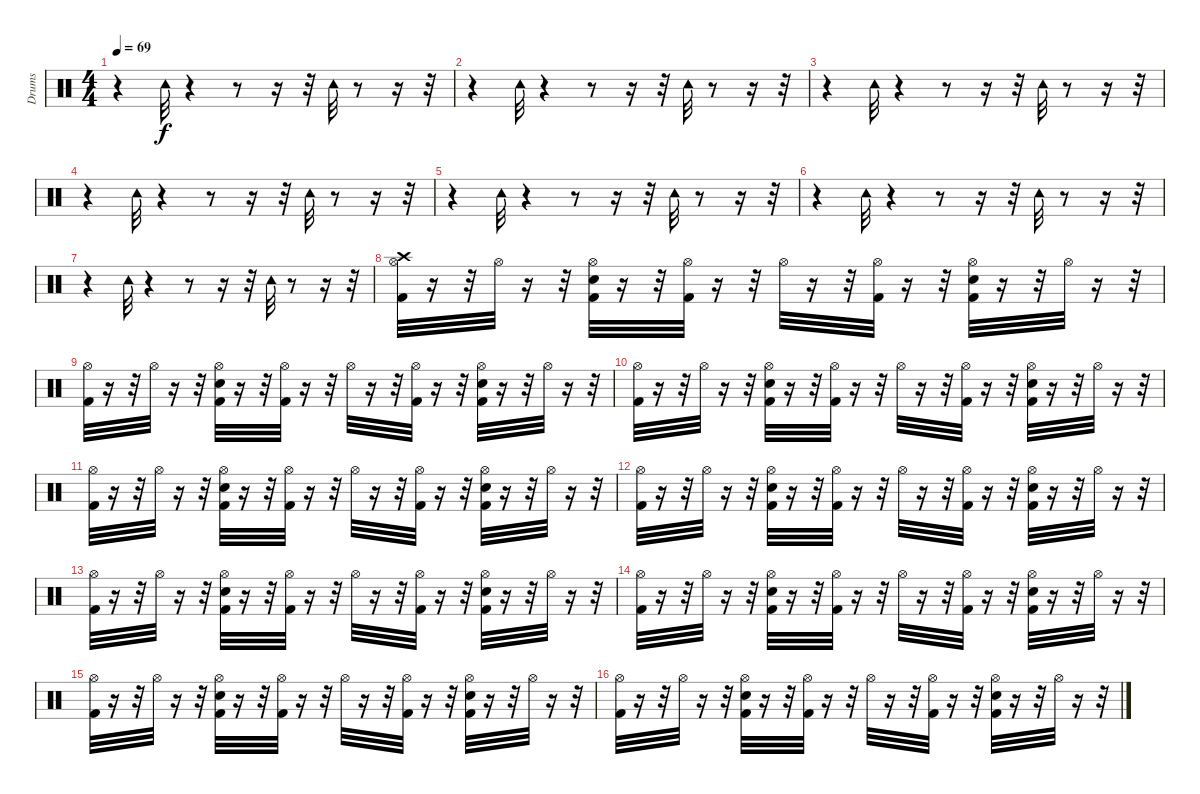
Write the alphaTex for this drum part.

\track ("Drums" "Drums") {instrument percussion}
\staff {score}
\articulation defaults
\ts (4 4)
\tempo 69
\clef neutral
\ks c
r.4{dy f} "Tambourine (hit)".32 r.4 r.8 r.16 r.32 "Tambourine (hit)".32 r.8 r.16 r.32 |
r.4 "Tambourine (hit)".32 r.4 r.8 r.16 r.32 "Tambourine (hit)".32 r.8 r.16 r.32 |
r.4 "Tambourine (hit)".32 r.4 r.8 r.16 r.32 "Tambourine (hit)".32 r.8 r.16 r.32 |
r.4 "Tambourine (hit)".32 r.4 r.8 r.16 r.32 "Tambourine (hit)".32 r.8 r.16 r.32 |
r.4 "Tambourine (hit)".32 r.4 r.8 r.16 r.32 "Tambourine (hit)".32 r.8 r.16 r.32 |
r.4 "Tambourine (hit)".32 r.4 r.8 r.16 r.32 "Tambourine (hit)".32 r.8 r.16 r.32 |
r.4 "Tambourine (hit)".32 r.4 r.8 r.16 r.32 "Tambourine (hit)".32 r.8 r.16 r.32 |
("Crash high (hit)" "Hi-Hat (open)" "Kick (hit) 2").32 r.16 r.32 "Hi-Hat (open)".32 r.16 r.32 ("Electric Snare (hit)" "Hi-Hat (open)" "Kick (hit) 2").32 r.16 r.32 ("Kick (hit) 2" "Hi-Hat (open)").32 r.16 r.32 "Hi-Hat (open)".32 r.16 r.32 ("Kick (hit) 2" "Hi-Hat (open)").32 r.16 r.32 ("Electric Snare (hit)" "Kick (hit) 2" "Hi-Hat (open)").32 r.16 r.32 "Hi-Hat (open)".32 r.16 r.32 |
("Hi-Hat (open)" "Kick (hit) 2").32 r.16 r.32 "Hi-Hat (open)".32 r.16 r.32 ("Electric Snare (hit)" "Hi-Hat (open)" "Kick (hit) 2").32 r.16 r.32 ("Kick (hit) 2" "Hi-Hat (open)").32 r.16 r.32 "Hi-Hat (open)".32 r.16 r.32 ("Kick (hit) 2" "Hi-Hat (open)").32 r.16 r.32 ("Electric Snare (hit)" "Kick (hit) 2" "Hi-Hat (open)").32 r.16 r.32 "Hi-Hat (open)".32 r.16 r.32 |
("Hi-Hat (open)" "Kick (hit) 2").32 r.16 r.32 "Hi-Hat (open)".32 r.16 r.32 ("Electric Snare (hit)" "Hi-Hat (open)" "Kick (hit) 2").32 r.16 r.32 ("Kick (hit) 2" "Hi-Hat (open)").32 r.16 r.32 "Hi-Hat (open)".32 r.16 r.32 ("Kick (hit) 2" "Hi-Hat (open)").32 r.16 r.32 ("Electric Snare (hit)" "Kick (hit) 2" "Hi-Hat (open)").32 r.16 r.32 "Hi-Hat (open)".32 r.16 r.32 |
("Hi-Hat (open)" "Kick (hit) 2").32 r.16 r.32 "Hi-Hat (open)".32 r.16 r.32 ("Electric Snare (hit)" "Hi-Hat (open)" "Kick (hit) 2").32 r.16 r.32 ("Kick (hit) 2" "Hi-Hat (open)").32 r.16 r.32 "Hi-Hat (open)".32 r.16 r.32 ("Kick (hit) 2" "Hi-Hat (open)").32 r.16 r.32 ("Electric Snare (hit)" "Kick (hit) 2" "Hi-Hat (open)").32 r.16 r.32 "Hi-Hat (open)".32 r.16 r.32 |
("Hi-Hat (open)" "Kick (hit) 2").32 r.16 r.32 "Hi-Hat (open)".32 r.16 r.32 ("Electric Snare (hit)" "Hi-Hat (open)" "Kick (hit) 2").32 r.16 r.32 ("Kick (hit) 2" "Hi-Hat (open)").32 r.16 r.32 "Hi-Hat (open)".32 r.16 r.32 ("Kick (hit) 2" "Hi-Hat (open)").32 r.16 r.32 ("Electric Snare (hit)" "Kick (hit) 2" "Hi-Hat (open)").32 r.16 r.32 "Hi-Hat (open)".32 r.16 r.32 |
("Hi-Hat (open)" "Kick (hit) 2").32 r.16 r.32 "Hi-Hat (open)".32 r.16 r.32 ("Electric Snare (hit)" "Hi-Hat (open)" "Kick (hit) 2").32 r.16 r.32 ("Kick (hit) 2" "Hi-Hat (open)").32 r.16 r.32 "Hi-Hat (open)".32 r.16 r.32 ("Kick (hit) 2" "Hi-Hat (open)").32 r.16 r.32 ("Electric Snare (hit)" "Kick (hit) 2" "Hi-Hat (open)").32 r.16 r.32 "Hi-Hat (open)".32 r.16 r.32 |
("Hi-Hat (open)" "Kick (hit) 2").32 r.16 r.32 "Hi-Hat (open)".32 r.16 r.32 ("Electric Snare (hit)" "Hi-Hat (open)" "Kick (hit) 2").32 r.16 r.32 ("Kick (hit) 2" "Hi-Hat (open)").32 r.16 r.32 "Hi-Hat (open)".32 r.16 r.32 ("Kick (hit) 2" "Hi-Hat (open)").32 r.16 r.32 ("Electric Snare (hit)" "Kick (hit) 2" "Hi-Hat (open)").32 r.16 r.32 "Hi-Hat (open)".32 r.16 r.32 |
("Hi-Hat (open)" "Kick (hit) 2").32 r.16 r.32 "Hi-Hat (open)".32 r.16 r.32 ("Electric Snare (hit)" "Hi-Hat (open)" "Kick (hit) 2").32 r.16 r.32 ("Kick (hit) 2" "Hi-Hat (open)").32 r.16 r.32 "Hi-Hat (open)".32 r.16 r.32 ("Kick (hit) 2" "Hi-Hat (open)").32 r.16 r.32 ("Electric Snare (hit)" "Kick (hit) 2" "Hi-Hat (open)").32 r.16 r.32 "Hi-Hat (open)".32 r.16 r.32 |
("Hi-Hat (open)" "Kick (hit) 2").32 r.16 r.32 "Hi-Hat (open)".32 r.16 r.32 ("Electric Snare (hit)" "Hi-Hat (open)" "Kick (hit) 2").32 r.16 r.32 ("Kick (hit) 2" "Hi-Hat (open)").32 r.16 r.32 "Hi-Hat (open)".32 r.16 r.32 ("Kick (hit) 2" "Hi-Hat (open)").32 r.16 r.32 ("Electric Snare (hit)" "Kick (hit) 2" "Hi-Hat (open)").32 r.16 r.32 "Hi-Hat (open)".32 r.16 r.32
